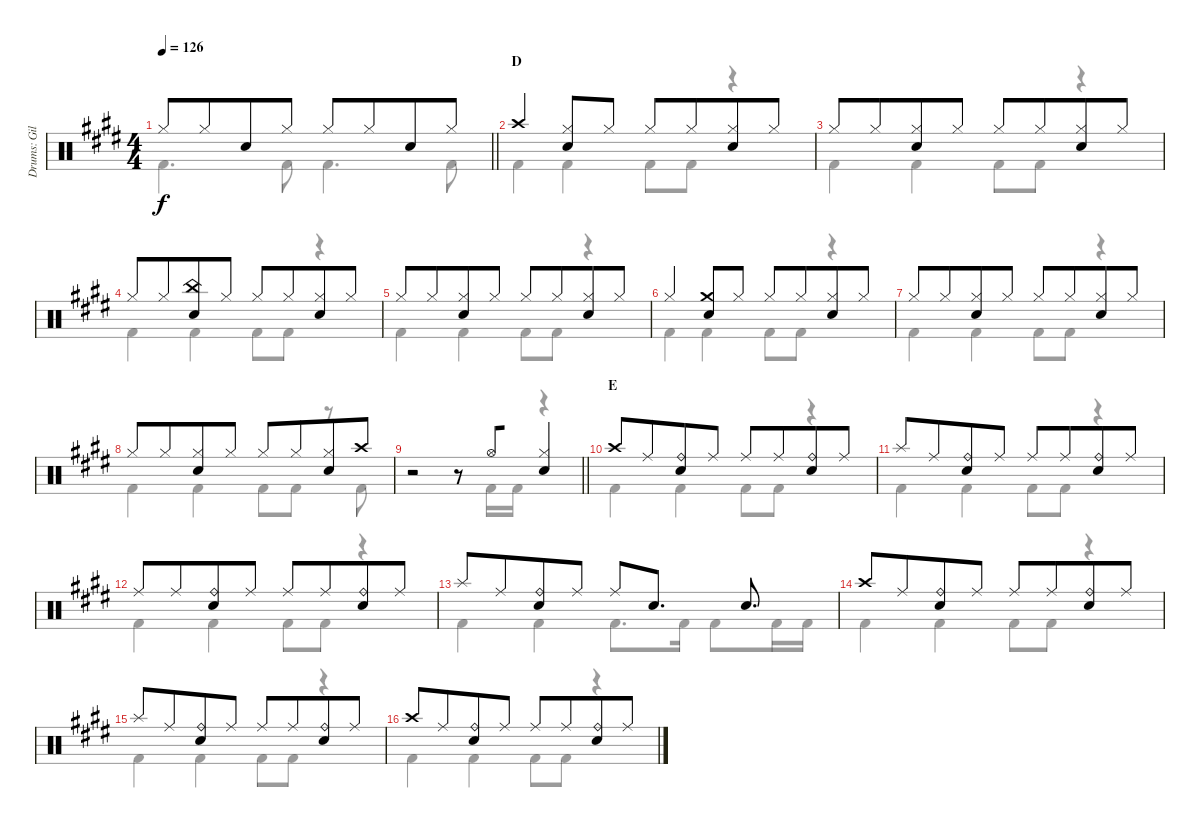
\track ("Drums: Gil" "Drums: Gil") {instrument percussion}
\staff {score}
\articulation defaults
\voice
\ts (4 4)
\tempo 126
\clef neutral
\barLineRight lightlight
\ks e "Hi-Hat (closed)".8{dy f} "Hi-Hat (closed)".8{beam merge} "Snare (hit) 2".8 "Hi-Hat (closed)".8 "Hi-Hat (closed)".8 "Hi-Hat (closed)".8{beam merge} "Snare (hit) 2".8 "Hi-Hat (closed)".8
|
\section ("" "D")
"Crash high (hit)".4{beam merge} ("Hi-Hat (closed)" "Snare (hit) 2").8 "Hi-Hat (closed)".8 "Hi-Hat (closed)".8 "Hi-Hat (closed)".8{beam merge} ("Hi-Hat (closed)" "Snare (hit) 2").8 "Hi-Hat (closed)".8 |
"Hi-Hat (closed)".8 "Hi-Hat (closed)".8{beam merge} ("Hi-Hat (closed)" "Snare (hit) 2").8 "Hi-Hat (closed)".8 "Hi-Hat (closed)".8 "Hi-Hat (closed)".8{beam merge} ("Hi-Hat (closed)" "Snare (hit) 2").8 "Hi-Hat (closed)".8 |
"Hi-Hat (closed)".8 "Hi-Hat (closed)".8{beam merge} ("China (hit)" "Snare (hit) 2").8 "Hi-Hat (closed)".8 "Hi-Hat (closed)".8 "Hi-Hat (closed)".8{beam merge} ("Hi-Hat (closed)" "Snare (hit) 2").8 "Hi-Hat (closed)".8 |
"Hi-Hat (closed)".8 "Hi-Hat (closed)".8{beam merge} ("Hi-Hat (closed)" "Snare (hit) 2").8 "Hi-Hat (closed)".8 "Hi-Hat (closed)".8 "Hi-Hat (closed)".8{beam merge} ("Hi-Hat (closed)" "Snare (hit) 2").8 "Hi-Hat (closed)".8 |
"Hi-Hat (closed)".4{beam merge} ("Crash medium (hit)" "Snare (hit) 2").8 "Hi-Hat (closed)".8 "Hi-Hat (closed)".8 "Hi-Hat (closed)".8{beam merge} ("Hi-Hat (closed)" "Snare (hit) 2").8 "Hi-Hat (closed)".8 |
"Hi-Hat (closed)".8 "Hi-Hat (closed)".8{beam merge} ("Hi-Hat (closed)" "Snare (hit) 2").8 "Hi-Hat (closed)".8 "Hi-Hat (closed)".8 "Hi-Hat (closed)".8{beam merge} ("Hi-Hat (closed)" "Snare (hit) 2").8 "Hi-Hat (closed)".8 |
"Hi-Hat (closed)".8 "Hi-Hat (closed)".8{beam merge} ("Hi-Hat (closed)" "Snare (hit) 2").8 "Hi-Hat (closed)".8 "Hi-Hat (closed)".8 "Hi-Hat (closed)".8{beam merge} ("Hi-Hat (closed)" "Snare (hit) 2").8 "Crash high (hit)".8 |
\barLineRight lightlight
r.2 r.8 "Hi-Hat (open)".8{beam merge} ("Hi-Hat (closed)" "Snare (hit) 2").4 |
\section ("" "E")
"Crash high (hit)".8 "Ride (middle)".8{beam merge} ("Ride (bell)" "Snare (hit) 2").8 "Ride (middle)".8 "Ride (middle)".8 "Ride (middle)".8{beam merge} ("Ride (bell)" "Snare (hit) 2").8 "Ride (middle)".8 |
"Splash (hit)".8 "Ride (middle)".8{beam merge} ("Ride (bell)" "Snare (hit) 2").8 "Ride (middle)".8 "Ride (middle)".8 "Ride (middle)".8{beam merge} ("Ride (bell)" "Snare (hit) 2").8 "Ride (middle)".8 |
"Ride (middle)".8 "Ride (middle)".8{beam merge} ("Ride (bell)" "Snare (hit) 2").8 "Ride (middle)".8 "Ride (middle)".8 "Ride (middle)".8{beam merge} ("Ride (bell)" "Snare (hit) 2").8 "Ride (middle)".8 |
"Splash (hit)".8 "Ride (middle)".8{beam merge} ("Ride (bell)" "Snare (hit) 2").8 "Ride (middle)".8 "Ride (middle)".8 "Snare (hit) 2".8{d} "Snare (hit) 2".8{d} |
"Crash high (hit)".8 "Ride (middle)".8{beam merge} ("Ride (bell)" "Snare (hit) 2").8 "Ride (middle)".8 "Ride (middle)".8 "Ride (middle)".8{beam merge} ("Ride (bell)" "Snare (hit) 2").8 "Ride (middle)".8 |
"Splash (hit)".8 "Ride (middle)".8{beam merge} ("Ride (bell)" "Snare (hit) 2").8 "Ride (middle)".8 "Ride (middle)".8 "Ride (middle)".8{beam merge} ("Ride (bell)" "Snare (hit) 2").8 "Ride (middle)".8 |
"Crash high (hit)".8 "Ride (middle)".8{beam merge} ("Ride (bell)" "Snare (hit) 2").8 "Ride (middle)".8 "Ride (middle)".8 "Ride (middle)".8{beam merge} ("Ride (bell)" "Snare (hit) 2").8 "Ride (middle)".8
\voice
\clef neutral
\ottava regular
\simile none
\barLineRight lightlight
\ks e "Kick (hit) 2".4{d dy f} "Kick (hit) 2".8 "Kick (hit) 2".4{d} "Kick (hit) 2".8
|
"Kick (hit) 2".4 "Kick (hit) 2".4 "Kick (hit) 2".8 "Kick (hit) 2".8 r.4 |
"Kick (hit) 2".4 "Kick (hit) 2".4 "Kick (hit) 2".8 "Kick (hit) 2".8 r.4 |
"Kick (hit) 2".4 "Kick (hit) 2".4 "Kick (hit) 2".8 "Kick (hit) 2".8 r.4 |
"Kick (hit) 2".4 "Kick (hit) 2".4 "Kick (hit) 2".8 "Kick (hit) 2".8 r.4 |
"Kick (hit) 2".4 "Kick (hit) 2".4 "Kick (hit) 2".8 "Kick (hit) 2".8 r.4 |
"Kick (hit) 2".4 "Kick (hit) 2".4 "Kick (hit) 2".8 "Kick (hit) 2".8 r.4 |
"Kick (hit) 2".4 "Kick (hit) 2".4 "Kick (hit) 2".8 "Kick (hit) 2".8 r.8 "Kick (hit) 2".8 |
\barLineRight lightlight
r.2 r.8 "Kick (hit) 2".16 "Kick (hit) 2".16 r.4 |
"Kick (hit) 2".4 "Kick (hit) 2".4 "Kick (hit) 2".8 "Kick (hit) 2".8 r.4 |
"Kick (hit) 2".4 "Kick (hit) 2".4 "Kick (hit) 2".8 "Kick (hit) 2".8 r.4 |
"Kick (hit) 2".4 "Kick (hit) 2".4 "Kick (hit) 2".8 "Kick (hit) 2".8 r.4 |
"Kick (hit) 2".4 "Kick (hit) 2".4 "Kick (hit) 2".8{d} "Kick (hit) 2".16 "Kick (hit) 2".8 "Kick (hit) 2".16 "Kick (hit) 2".16 |
"Kick (hit) 2".4 "Kick (hit) 2".4 "Kick (hit) 2".8 "Kick (hit) 2".8 r.4 |
"Kick (hit) 2".4 "Kick (hit) 2".4 "Kick (hit) 2".8 "Kick (hit) 2".8 r.4 |
"Kick (hit) 2".4 "Kick (hit) 2".4 "Kick (hit) 2".8 "Kick (hit) 2".8 r.4
